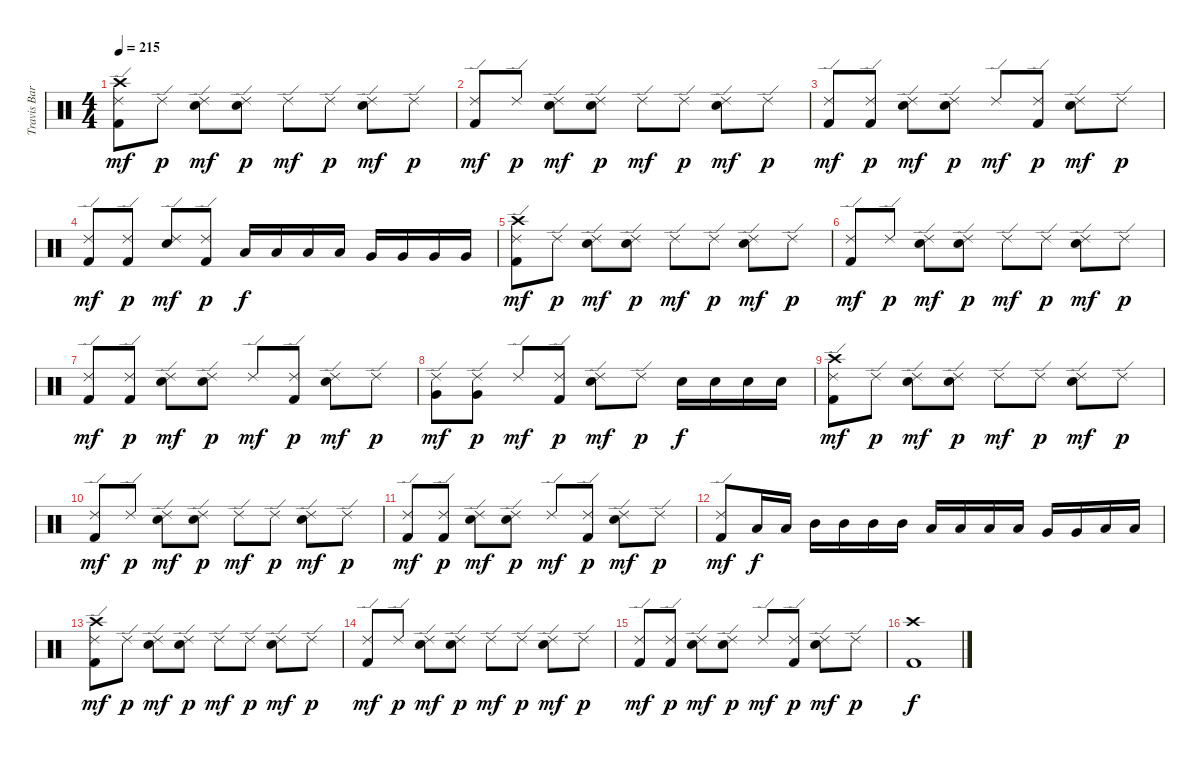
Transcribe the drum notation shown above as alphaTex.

\track ("Travis Barker" "Travis Bar") {instrument percussion}
\staff {score}
\articulation defaults
\ts (4 4)
\tempo 215
\clef neutral
\ks c
("Crash high (hit)" "Ride (edge) 2" "Kick (hit) 2").8{dy mf} "Ride (edge) 2".8{dy p} ("Ride (edge) 2" "Snare (hit) 2").8{dy mf} ("Ride (edge) 2" "Snare (hit) 2").8{dy p} "Ride (edge) 2".8{dy mf} "Ride (edge) 2".8{dy p} ("Ride (edge) 2" "Snare (hit) 2").8{dy mf} "Ride (edge) 2".8{dy p} |
("Ride (edge) 2" "Kick (hit) 2").8{dy mf} "Ride (edge) 2".8{dy p} ("Ride (edge) 2" "Snare (hit) 2").8{dy mf} ("Ride (edge) 2" "Snare (hit) 2").8{dy p} "Ride (edge) 2".8{dy mf} "Ride (edge) 2".8{dy p} ("Ride (edge) 2" "Snare (hit) 2").8{dy mf} "Ride (edge) 2".8{dy p} |
("Ride (edge) 2" "Kick (hit) 2").8{dy mf} ("Ride (edge) 2" "Kick (hit) 2").8{dy p} ("Ride (edge) 2" "Snare (hit) 2").8{dy mf} ("Ride (edge) 2" "Snare (hit) 2").8{dy p} "Ride (edge) 2".8{dy mf} ("Ride (edge) 2" "Kick (hit) 2").8{dy p} ("Ride (edge) 2" "Snare (hit) 2").8{dy mf} "Ride (edge) 2".8{dy p} |
("Ride (edge) 2" "Kick (hit) 2").8{dy mf} ("Ride (edge) 2" "Kick (hit) 2").8{dy p} ("Ride (edge) 2" "Snare (hit) 2").8{dy mf} ("Ride (edge) 2" "Kick (hit) 2").8{dy p} "Low Tom (hit)".16{dy f} "Low Tom (hit)".16 "Low Tom (hit)".16 "Low Tom (hit)".16 "Very Low Tom (hit)".16 "Very Low Tom (hit)".16 "Very Low Tom (hit)".16 "Very Low Tom (hit)".16 |
("Crash high (hit)" "Ride (edge) 2" "Kick (hit) 2").8{dy mf} "Ride (edge) 2".8{dy p} ("Ride (edge) 2" "Snare (hit) 2").8{dy mf} ("Ride (edge) 2" "Snare (hit) 2").8{dy p} "Ride (edge) 2".8{dy mf} "Ride (edge) 2".8{dy p} ("Ride (edge) 2" "Snare (hit) 2").8{dy mf} "Ride (edge) 2".8{dy p} |
("Ride (edge) 2" "Kick (hit) 2").8{dy mf} "Ride (edge) 2".8{dy p} ("Ride (edge) 2" "Snare (hit) 2").8{dy mf} ("Ride (edge) 2" "Snare (hit) 2").8{dy p} "Ride (edge) 2".8{dy mf} "Ride (edge) 2".8{dy p} ("Ride (edge) 2" "Snare (hit) 2").8{dy mf} "Ride (edge) 2".8{dy p} |
("Ride (edge) 2" "Kick (hit) 2").8{dy mf} ("Ride (edge) 2" "Kick (hit) 2").8{dy p} ("Ride (edge) 2" "Snare (hit) 2").8{dy mf} ("Ride (edge) 2" "Snare (hit) 2").8{dy p} "Ride (edge) 2".8{dy mf} ("Ride (edge) 2" "Kick (hit) 2").8{dy p} ("Ride (edge) 2" "Snare (hit) 2").8{dy mf} "Ride (edge) 2".8{dy p} |
("Ride (edge) 2" "Very Low Tom (hit)").8{dy mf} ("Ride (edge) 2" "Very Low Tom (hit)").8{dy p} "Ride (edge) 2".8{dy mf} ("Ride (edge) 2" "Kick (hit) 2").8{dy p} ("Ride (edge) 2" "Snare (hit) 2").8{dy mf} "Ride (edge) 2".8{dy p} "Snare (hit) 2".16{dy f} "Snare (hit) 2".16 "Snare (hit) 2".16 "Snare (hit) 2".16 |
("Crash high (hit)" "Ride (edge) 2" "Kick (hit) 2").8{dy mf} "Ride (edge) 2".8{dy p} ("Ride (edge) 2" "Snare (hit) 2").8{dy mf} ("Ride (edge) 2" "Snare (hit) 2").8{dy p} "Ride (edge) 2".8{dy mf} "Ride (edge) 2".8{dy p} ("Ride (edge) 2" "Snare (hit) 2").8{dy mf} "Ride (edge) 2".8{dy p} |
("Ride (edge) 2" "Kick (hit) 2").8{dy mf} "Ride (edge) 2".8{dy p} ("Ride (edge) 2" "Snare (hit) 2").8{dy mf} ("Ride (edge) 2" "Snare (hit) 2").8{dy p} "Ride (edge) 2".8{dy mf} "Ride (edge) 2".8{dy p} ("Ride (edge) 2" "Snare (hit) 2").8{dy mf} "Ride (edge) 2".8{dy p} |
("Ride (edge) 2" "Kick (hit) 2").8{dy mf} ("Ride (edge) 2" "Kick (hit) 2").8{dy p} ("Ride (edge) 2" "Snare (hit) 2").8{dy mf} ("Ride (edge) 2" "Snare (hit) 2").8{dy p} "Ride (edge) 2".8{dy mf} ("Ride (edge) 2" "Kick (hit) 2").8{dy p} ("Ride (edge) 2" "Snare (hit) 2").8{dy mf} "Ride (edge) 2".8{dy p} |
("Ride (edge) 2" "Kick (hit) 2").8{dy mf} "Low Tom (hit)".16{dy f} "Low Tom (hit)".16 "Mid Tom (hit)".16 "Mid Tom (hit)".16 "Mid Tom (hit)".16 "Mid Tom (hit)".16 "Low Tom (hit)".16 "Low Tom (hit)".16 "Low Tom (hit)".16 "Low Tom (hit)".16 "Very Low Tom (hit)".16 "Very Low Tom (hit)".16 "Low Floor Tom (hit)".16 "Low Floor Tom (hit)".16 |
("Crash high (hit)" "Ride (edge) 2" "Kick (hit) 2").8{dy mf} "Ride (edge) 2".8{dy p} ("Ride (edge) 2" "Snare (hit) 2").8{dy mf} ("Ride (edge) 2" "Snare (hit) 2").8{dy p} "Ride (edge) 2".8{dy mf} "Ride (edge) 2".8{dy p} ("Ride (edge) 2" "Snare (hit) 2").8{dy mf} "Ride (edge) 2".8{dy p} |
("Ride (edge) 2" "Kick (hit) 2").8{dy mf} "Ride (edge) 2".8{dy p} ("Ride (edge) 2" "Snare (hit) 2").8{dy mf} ("Ride (edge) 2" "Snare (hit) 2").8{dy p} "Ride (edge) 2".8{dy mf} "Ride (edge) 2".8{dy p} ("Ride (edge) 2" "Snare (hit) 2").8{dy mf} "Ride (edge) 2".8{dy p} |
("Ride (edge) 2" "Kick (hit) 2").8{dy mf} ("Ride (edge) 2" "Kick (hit) 2").8{dy p} ("Ride (edge) 2" "Snare (hit) 2").8{dy mf} ("Ride (edge) 2" "Snare (hit) 2").8{dy p} "Ride (edge) 2".8{dy mf} ("Ride (edge) 2" "Kick (hit) 2").8{dy p} ("Ride (edge) 2" "Snare (hit) 2").8{dy mf} "Ride (edge) 2".8{dy p} |
("Crash high (hit)" "Kick (hit) 2").1{dy f}
